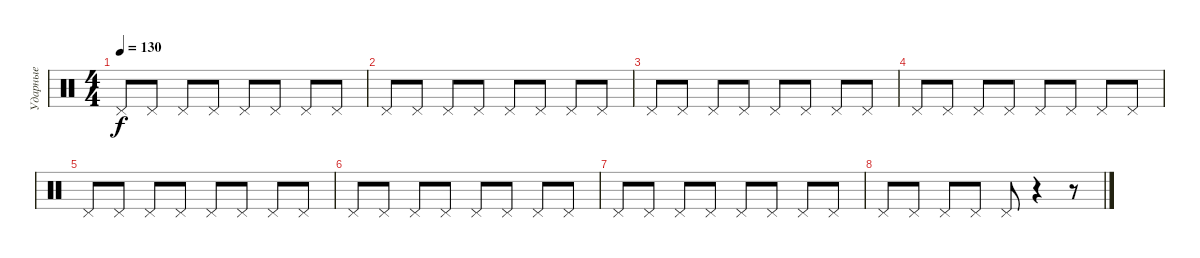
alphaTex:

\track ("Ударные" "Ударные") {instrument percussion}
\staff {score}
\articulation defaults
\ts (4 4)
\tempo 130
\clef neutral
\ks c "Pedal Hi-Hat (hit)".8{dy f} "Pedal Hi-Hat (hit)".8 "Pedal Hi-Hat (hit)".8 "Pedal Hi-Hat (hit)".8 "Pedal Hi-Hat (hit)".8 "Pedal Hi-Hat (hit)".8 "Pedal Hi-Hat (hit)".8 "Pedal Hi-Hat (hit)".8
|
"Pedal Hi-Hat (hit)".8 "Pedal Hi-Hat (hit)".8 "Pedal Hi-Hat (hit)".8 "Pedal Hi-Hat (hit)".8 "Pedal Hi-Hat (hit)".8 "Pedal Hi-Hat (hit)".8 "Pedal Hi-Hat (hit)".8 "Pedal Hi-Hat (hit)".8 |
"Pedal Hi-Hat (hit)".8 "Pedal Hi-Hat (hit)".8 "Pedal Hi-Hat (hit)".8 "Pedal Hi-Hat (hit)".8 "Pedal Hi-Hat (hit)".8 "Pedal Hi-Hat (hit)".8 "Pedal Hi-Hat (hit)".8 "Pedal Hi-Hat (hit)".8 |
"Pedal Hi-Hat (hit)".8 "Pedal Hi-Hat (hit)".8 "Pedal Hi-Hat (hit)".8 "Pedal Hi-Hat (hit)".8 "Pedal Hi-Hat (hit)".8 "Pedal Hi-Hat (hit)".8 "Pedal Hi-Hat (hit)".8 "Pedal Hi-Hat (hit)".8 |
"Pedal Hi-Hat (hit)".8 "Pedal Hi-Hat (hit)".8 "Pedal Hi-Hat (hit)".8 "Pedal Hi-Hat (hit)".8 "Pedal Hi-Hat (hit)".8 "Pedal Hi-Hat (hit)".8 "Pedal Hi-Hat (hit)".8 "Pedal Hi-Hat (hit)".8 |
"Pedal Hi-Hat (hit)".8 "Pedal Hi-Hat (hit)".8 "Pedal Hi-Hat (hit)".8 "Pedal Hi-Hat (hit)".8 "Pedal Hi-Hat (hit)".8 "Pedal Hi-Hat (hit)".8 "Pedal Hi-Hat (hit)".8 "Pedal Hi-Hat (hit)".8 |
"Pedal Hi-Hat (hit)".8 "Pedal Hi-Hat (hit)".8 "Pedal Hi-Hat (hit)".8 "Pedal Hi-Hat (hit)".8 "Pedal Hi-Hat (hit)".8 "Pedal Hi-Hat (hit)".8 "Pedal Hi-Hat (hit)".8 "Pedal Hi-Hat (hit)".8 |
"Pedal Hi-Hat (hit)".8 "Pedal Hi-Hat (hit)".8 "Pedal Hi-Hat (hit)".8 "Pedal Hi-Hat (hit)".8 "Pedal Hi-Hat (hit)".8 r.4 r.8
